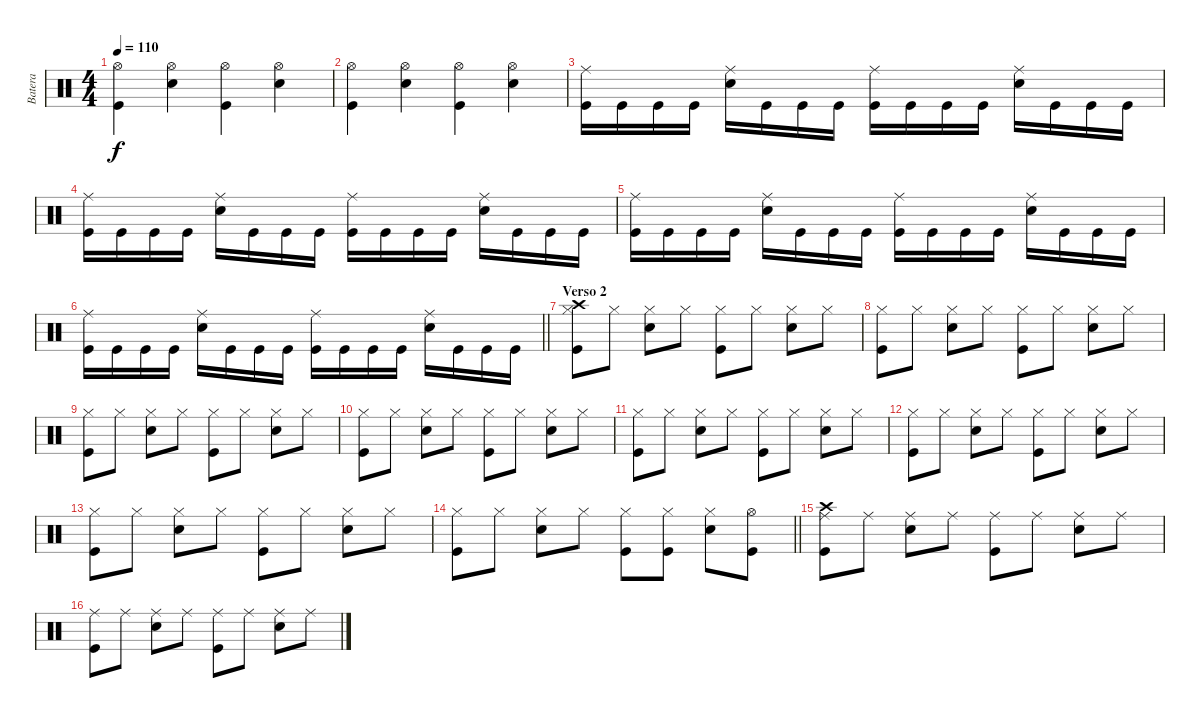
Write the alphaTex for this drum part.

\track ("Batera" "Batera") {instrument percussion}
\staff {score}
\articulation defaults
\ts (4 4)
\tempo 110
\clef neutral
\ks c
("Hi-Hat (open)" "Kick (hit)").4{dy f} ("Hi-Hat (open)" "Snare (hit) 2").4 ("Hi-Hat (open)" "Kick (hit)").4 ("Hi-Hat (open)" "Snare (hit) 2").4 |
("Hi-Hat (open)" "Kick (hit)").4 ("Hi-Hat (open)" "Snare (hit) 2").4 ("Hi-Hat (open)" "Kick (hit)").4 ("Hi-Hat (open)" "Snare (hit) 2").4 |
("Ride (middle)" "Kick (hit)").16 "Kick (hit)".16 "Kick (hit)".16 "Kick (hit)".16 ("Ride (middle)" "Snare (hit) 2").16 "Kick (hit)".16 "Kick (hit)".16 "Kick (hit)".16 ("Ride (middle)" "Kick (hit)").16 "Kick (hit)".16 "Kick (hit)".16 "Kick (hit)".16 ("Ride (middle)" "Snare (hit) 2").16 "Kick (hit)".16 "Kick (hit)".16 "Kick (hit)".16 |
("Ride (middle)" "Kick (hit)").16 "Kick (hit)".16 "Kick (hit)".16 "Kick (hit)".16 ("Ride (middle)" "Snare (hit) 2").16 "Kick (hit)".16 "Kick (hit)".16 "Kick (hit)".16 ("Ride (middle)" "Kick (hit)").16 "Kick (hit)".16 "Kick (hit)".16 "Kick (hit)".16 ("Ride (middle)" "Snare (hit) 2").16 "Kick (hit)".16 "Kick (hit)".16 "Kick (hit)".16 |
("Ride (middle)" "Kick (hit)").16 "Kick (hit)".16 "Kick (hit)".16 "Kick (hit)".16 ("Ride (middle)" "Snare (hit) 2").16 "Kick (hit)".16 "Kick (hit)".16 "Kick (hit)".16 ("Ride (middle)" "Kick (hit)").16 "Kick (hit)".16 "Kick (hit)".16 "Kick (hit)".16 ("Ride (middle)" "Snare (hit) 2").16 "Kick (hit)".16 "Kick (hit)".16 "Kick (hit)".16 |
\barLineRight lightlight
("Ride (middle)" "Kick (hit)").16 "Kick (hit)".16 "Kick (hit)".16 "Kick (hit)".16 ("Ride (middle)" "Snare (hit) 2").16 "Kick (hit)".16 "Kick (hit)".16 "Kick (hit)".16 ("Ride (middle)" "Kick (hit)").16 "Kick (hit)".16 "Kick (hit)".16 "Kick (hit)".16 ("Ride (middle)" "Snare (hit) 2").16 "Kick (hit)".16 "Kick (hit)".16 "Kick (hit)".16 |
\section ("" "Verso 2")
("Hi-Hat (closed)" "Kick (hit)" "Crash high (hit)").8 "Hi-Hat (closed)".8 ("Hi-Hat (closed)" "Snare (hit) 2").8 "Hi-Hat (closed)".8 ("Hi-Hat (closed)" "Kick (hit)").8 "Hi-Hat (closed)".8 ("Hi-Hat (closed)" "Snare (hit) 2").8 "Hi-Hat (closed)".8 |
("Hi-Hat (closed)" "Kick (hit)").8 "Hi-Hat (closed)".8 ("Hi-Hat (closed)" "Snare (hit) 2").8 "Hi-Hat (closed)".8 ("Hi-Hat (closed)" "Kick (hit)").8 "Hi-Hat (closed)".8 ("Hi-Hat (closed)" "Snare (hit) 2").8 "Hi-Hat (closed)".8 |
("Hi-Hat (closed)" "Kick (hit)").8 "Hi-Hat (closed)".8 ("Hi-Hat (closed)" "Snare (hit) 2").8 "Hi-Hat (closed)".8 ("Hi-Hat (closed)" "Kick (hit)").8 "Hi-Hat (closed)".8 ("Hi-Hat (closed)" "Snare (hit) 2").8 "Hi-Hat (closed)".8 |
("Hi-Hat (closed)" "Kick (hit)").8 "Hi-Hat (closed)".8 ("Hi-Hat (closed)" "Snare (hit) 2").8 "Hi-Hat (closed)".8 ("Hi-Hat (closed)" "Kick (hit)").8 "Hi-Hat (closed)".8 ("Hi-Hat (closed)" "Snare (hit) 2").8 "Hi-Hat (closed)".8 |
("Hi-Hat (closed)" "Kick (hit)").8 "Hi-Hat (closed)".8 ("Hi-Hat (closed)" "Snare (hit) 2").8 "Hi-Hat (closed)".8 ("Hi-Hat (closed)" "Kick (hit)").8 "Hi-Hat (closed)".8 ("Hi-Hat (closed)" "Snare (hit) 2").8 "Hi-Hat (closed)".8 |
("Hi-Hat (closed)" "Kick (hit)").8 "Hi-Hat (closed)".8 ("Hi-Hat (closed)" "Snare (hit) 2").8 "Hi-Hat (closed)".8 ("Hi-Hat (closed)" "Kick (hit)").8 "Hi-Hat (closed)".8 ("Hi-Hat (closed)" "Snare (hit) 2").8 "Hi-Hat (closed)".8 |
("Hi-Hat (closed)" "Kick (hit)").8 "Hi-Hat (closed)".8 ("Hi-Hat (closed)" "Snare (hit) 2").8 "Hi-Hat (closed)".8 ("Hi-Hat (closed)" "Kick (hit)").8 "Hi-Hat (closed)".8 ("Hi-Hat (closed)" "Snare (hit) 2").8 "Hi-Hat (closed)".8 |
\barLineRight lightlight
("Hi-Hat (closed)" "Kick (hit)").8 "Hi-Hat (closed)".8 ("Hi-Hat (closed)" "Snare (hit) 2").8 "Hi-Hat (closed)".8 ("Hi-Hat (closed)" "Kick (hit)").8 ("Hi-Hat (closed)" "Kick (hit)").8 ("Hi-Hat (closed)" "Snare (hit) 2").8 ("Hi-Hat (open)" "Kick (hit)").8 |
("Ride (middle)" "Kick (hit)" "Crash high (hit)").8 "Ride (middle)".8 ("Ride (middle)" "Snare (hit) 2").8 "Ride (middle)".8 ("Ride (middle)" "Kick (hit)").8 "Ride (middle)".8 ("Ride (middle)" "Snare (hit) 2").8 "Ride (middle)".8 |
("Ride (middle)" "Kick (hit)").8 "Ride (middle)".8 ("Ride (middle)" "Snare (hit) 2").8 "Ride (middle)".8 ("Ride (middle)" "Kick (hit)").8 "Ride (middle)".8 ("Ride (middle)" "Snare (hit) 2").8 "Ride (middle)".8
